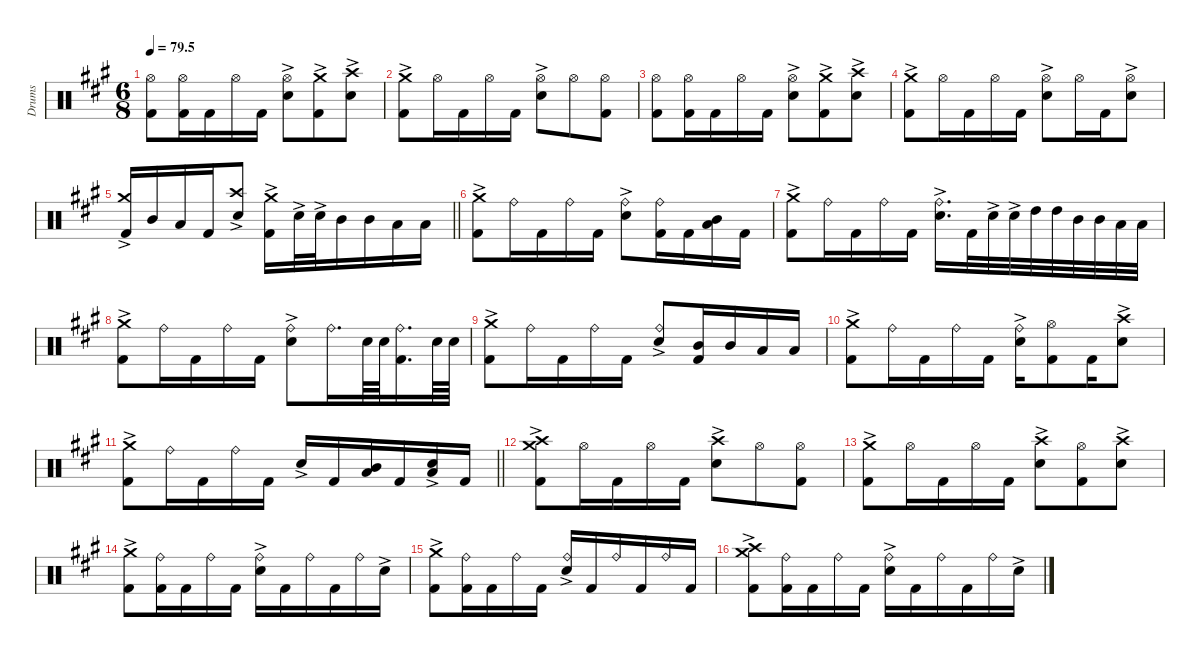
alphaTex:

\defaultSystemsLayout 4
\hideDynamics
\bracketExtendMode nobrackets
\otherSystemsTrackNameOrientation horizontal
\track ("Drumkit-show" "Drums") {mute instrument percussion}
\staff {score}
\articulation defaults
\ts (6 8)
\tempo
79.5
\accidentals auto
\clef neutral
\ottava regular
\simile none
\ks a
("Hi-Hat (open)"{acc forcenatural} "Kick (hit) 2"{acc forcenatural}).8{dy f beam Down} ("Hi-Hat (open)"{acc forcenatural} "Kick (hit) 2"{acc forcenatural}).16{beam Down} "Kick (hit) 2"{acc forcenatural}.16{beam Down} "Hi-Hat (open)"{acc forcenatural}.16{beam Down} "Kick (hit) 2"{acc forcenatural}.16{beam Down} ("Snare (hit) 2"{ac acc forcenatural} "Hi-Hat (open)"{acc forcenatural}).8{beam Down} ("Kick (hit) 2"{acc forcenatural} "Crash medium (hit)"{ac acc forcenatural}).8{beam Down} ("Snare (hit) 2"{ac acc forcenatural} "Crash high (hit)"{acc forcenatural}).8{beam Down} |
("Crash medium (hit)"{ac acc forcenatural} "Kick (hit) 2"{acc forcenatural}).8{beam Down} "Hi-Hat (open)"{acc forcenatural}.16{beam Down} "Kick (hit) 2"{acc forcenatural}.16{beam Down} "Hi-Hat (open)"{acc forcenatural}.16{beam Down} "Kick (hit) 2"{acc forcenatural}.16{beam Down} ("Hi-Hat (open)"{acc forcenatural} "Snare (hit) 2"{ac acc forcenatural}).8{beam Down} "Hi-Hat (open)"{acc forcenatural}.8{beam Down} ("Hi-Hat (open)"{acc forcenatural} "Kick (hit) 2"{acc forcenatural}).8{beam Down} |
("Hi-Hat (open)"{acc forcenatural} "Kick (hit) 2"{acc forcenatural}).8{beam Down} ("Hi-Hat (open)"{acc forcenatural} "Kick (hit) 2"{acc forcenatural}).16{beam Down} "Kick (hit) 2"{acc forcenatural}.16{beam Down} "Hi-Hat (open)"{acc forcenatural}.16{beam Down} "Kick (hit) 2"{acc forcenatural}.16{beam Down} ("Snare (hit) 2"{ac acc forcenatural} "Hi-Hat (open)"{acc forcenatural}).8{beam Down} ("Kick (hit) 2"{acc forcenatural} "Crash medium (hit)"{ac acc forcenatural}).8{beam Down} ("Snare (hit) 2"{ac acc forcenatural} "Crash high (hit)"{acc forcenatural}).8{beam Down} |
\scale
0.349521 ("Crash medium (hit)"{ac acc forcenatural} "Kick (hit) 2"{acc forcenatural}).8{beam Down} "Hi-Hat (open)"{acc forcenatural}.16{beam Down} "Kick (hit) 2"{acc forcenatural}.16{beam Down} "Hi-Hat (open)"{acc forcenatural}.16{beam Down} "Kick (hit) 2"{acc forcenatural}.16{beam Down} ("Hi-Hat (open)"{acc forcenatural} "Snare (hit) 2"{ac acc forcenatural}).8{beam Down} "Hi-Hat (open)"{acc forcenatural}.16{beam Down} "Kick (hit) 2"{acc forcenatural}.16{beam Down} ("Hi-Hat (open)"{acc forcenatural} "Snare (hit) 2"{ac acc forcenatural}).8{beam Down} |
\scale
0.330568
\barLineRight lightlight
("Crash medium (hit)"{ac acc forcenatural} "Kick (hit) 2"{acc forcenatural}).16{beam Up} "Mid Tom (hit)"{acc forcenatural}.16{beam Up} "Low Tom (hit)"{acc forcenatural}.16{beam Up} "Kick (hit) 2"{acc forcenatural}.16{beam Up} ("Crash high (hit)"{acc forcenatural} "Snare (hit) 2"{ac acc forcenatural}).8{beam Up} ("Crash medium (hit)"{ac acc forcenatural} "Kick (hit) 2"{acc forcenatural}).16{beam Down} "Snare (hit) 2"{ac acc forcenatural}.32{beam Down} "Snare (hit) 2"{ac acc forcenatural}.32{beam Down} "Mid Tom (hit)"{acc forcenatural}.16{beam Down} "Mid Tom (hit)"{acc forcenatural}.16{beam Down} "Low Tom (hit)"{acc forcenatural}.16{beam Down} "Low Tom (hit)"{acc forcenatural}.16{beam Down} |
\scale
0.31993 ("Crash medium (hit)"{ac acc forcenatural} "Kick (hit) 2"{acc forcenatural}).8{beam Down} "Ride (bell)"{acc forcenatural}.16{beam Down} "Kick (hit) 2"{acc forcenatural}.16{beam Down} "Ride (bell)"{acc forcenatural}.16{beam Down} "Kick (hit) 2"{acc forcenatural}.16{beam Down} ("Ride (bell)"{acc forcenatural} "Snare (hit) 2"{ac acc forcenatural}).8{beam Down} ("Ride (bell)"{acc forcenatural} "Kick (hit) 2"{acc forcenatural}).16{beam Down} "Kick (hit) 2"{acc forcenatural}.16{beam Down} ("Mid Tom (hit)"{acc forcenatural} "Low Tom (hit)"{acc forcenatural}).16{beam Down} "Kick (hit) 2"{acc forcenatural}.16{beam Down} |
("Crash medium (hit)"{ac acc forcenatural} "Kick (hit) 2"{acc forcenatural}).8{beam Down} "Ride (bell)"{acc forcenatural}.16{beam Down} "Kick (hit) 2"{acc forcenatural}.16{beam Down} "Ride (bell)"{acc forcenatural}.16{beam Down} "Kick (hit) 2"{acc forcenatural}.16{beam Down} ("Ride (bell)"{acc forcenatural} "Snare (hit) 2"{ac acc forcenatural}).16{d beam Down} "Kick (hit) 2"{acc forcenatural}.32{beam Down} "Snare (hit) 2"{ac acc forcenatural}.32{beam Down} "Snare (hit) 2"{ac acc forcenatural}.32{beam Down} "High Tom (hit)"{acc forcenatural}.32{beam Down} "High Tom (hit)"{acc forcenatural}.32{beam Down} "Mid Tom (hit)"{acc forcenatural}.32{beam Down} "Mid Tom (hit)"{acc forcenatural}.32{beam Down} "Low Tom (hit)"{acc forcenatural}.32{beam Down} "Low Tom (hit)"{acc forcenatural}.32{beam Down} |
("Crash medium (hit)"{ac acc forcenatural} "Kick (hit) 2"{acc forcenatural}).8{beam Down} "Ride (bell)"{acc forcenatural}.16{beam Down} "Kick (hit) 2"{acc forcenatural}.16{beam Down} "Ride (bell)"{acc forcenatural}.16{beam Down} "Kick (hit) 2"{acc forcenatural}.16{beam Down} ("Ride (bell)"{acc forcenatural} "Snare (hit) 2"{ac acc forcenatural}).8{beam Down} "Ride (bell)"{acc forcenatural}.16{d beam Down} "Snare (hit) 2"{acc forcenatural}.64{beam Down} "Snare (hit) 2"{acc forcenatural}.64{beam Down} ("Ride (bell)"{acc forcenatural} "Kick (hit) 2"{acc forcenatural}).16{d beam Down} "Snare (hit) 2"{acc forcenatural}.64{beam Down} "Snare (hit) 2"{acc forcenatural}.64{beam Down} |
("Crash medium (hit)"{ac acc forcenatural} "Kick (hit) 2"{acc forcenatural}).8{beam Down} "Ride (bell)"{acc forcenatural}.16{beam Down} "Kick (hit) 2"{acc forcenatural}.16{beam Down} "Ride (bell)"{acc forcenatural}.16{beam Down} "Kick (hit) 2"{acc forcenatural}.16{beam Down} ("Ride (bell)"{acc forcenatural} "Snare (hit) 2"{ac acc forcenatural}).8{beam Up} ("Mid Tom (hit)"{acc forcenatural} "Kick (hit) 2"{acc forcenatural}).16{beam Up} "Mid Tom (hit)"{acc forcenatural}.16{beam Up} "Low Tom (hit)"{acc forcenatural}.16{beam Up} "Low Tom (hit)"{acc forcenatural}.16{beam Up} |
("Crash medium (hit)"{ac acc forcenatural} "Kick (hit) 2"{acc forcenatural}).8{beam Down} "Ride (bell)"{acc forcenatural}.16{beam Down} "Kick (hit) 2"{acc forcenatural}.16{beam Down} "Ride (bell)"{acc forcenatural}.16{beam Down} "Kick (hit) 2"{acc forcenatural}.16{beam Down} ("Ride (bell)"{acc forcenatural} "Snare (hit) 2"{ac acc forcenatural}).16{beam Down} ("Hi-Hat (open)"{acc forcenatural} "Kick (hit) 2"{acc forcenatural}).8{beam Down} "Kick (hit) 2"{acc forcenatural}.16{beam Down} ("Crash high (hit)"{acc forcenatural} "Snare (hit) 2"{ac acc forcenatural}).8{beam Down} |
\barLineRight lightlight
("Crash medium (hit)"{ac acc forcenatural} "Kick (hit) 2"{acc forcenatural}).8{beam Down} "Ride (bell)"{acc forcenatural}.16{beam Down} "Kick (hit) 2"{acc forcenatural}.16{beam Down} "Ride (bell)"{acc forcenatural}.16{beam Down} "Kick (hit) 2"{acc forcenatural}.16{beam Down} "Snare (hit) 2"{ac acc forcenatural}.16{beam Up} "Kick (hit) 2"{acc forcenatural}.16{beam Up} ("Mid Tom (hit)"{acc forcenatural} "Low Tom (hit)"{acc forcenatural}).16{beam Up} "Kick (hit) 2"{acc forcenatural}.16{beam Up} ("Snare (hit) 2"{ac acc forcenatural} "Low Tom (hit)"{acc forcenatural}).16{beam Up} "Kick (hit) 2"{acc forcenatural}.16{beam Up} |
("Crash medium (hit)"{ac acc forcenatural} "Crash high (hit)"{acc forcenatural} "Kick (hit) 2"{acc forcenatural}).8{beam Down} "Hi-Hat (open)"{acc forcenatural}.16{beam Down} "Kick (hit) 2"{acc forcenatural}.16{beam Down} "Hi-Hat (open)"{acc forcenatural}.16{beam Down} "Kick (hit) 2"{acc forcenatural}.16{beam Down} ("Crash high (hit)"{acc forcenatural} "Snare (hit) 2"{ac acc forcenatural}).8{beam Down} "Hi-Hat (open)"{acc forcenatural}.8{beam Down} ("Hi-Hat (open)"{acc forcenatural} "Kick (hit) 2"{acc forcenatural}).8{beam Down} |
("Crash medium (hit)"{ac acc forcenatural} "Kick (hit) 2"{acc forcenatural}).8{beam Down} "Hi-Hat (open)"{acc forcenatural}.16{beam Down} "Kick (hit) 2"{acc forcenatural}.16{beam Down} "Hi-Hat (open)"{acc forcenatural}.16{beam Down} "Kick (hit) 2"{acc forcenatural}.16{beam Down} ("Crash high (hit)"{acc forcenatural} "Snare (hit) 2"{ac acc forcenatural}).8{beam Down} ("Hi-Hat (open)"{acc forcenatural} "Kick (hit) 2"{acc forcenatural}).8{beam Down} ("Snare (hit) 2"{ac acc forcenatural} "Crash high (hit)"{acc forcenatural}).8{beam Down} |
("Crash medium (hit)"{ac acc forcenatural} "Kick (hit) 2"{acc forcenatural}).8{beam Down} ("Ride (bell)"{acc forcenatural} "Kick (hit) 2"{acc forcenatural}).16{beam Down} "Kick (hit) 2"{acc forcenatural}.16{beam Down} "Ride (bell)"{acc forcenatural}.16{beam Down} "Kick (hit) 2"{acc forcenatural}.16{beam Down} ("Ride (bell)"{acc forcenatural} "Snare (hit) 2"{ac acc forcenatural}).16{beam Down} "Kick (hit) 2"{acc forcenatural}.16{beam Down} "Ride (bell)"{acc forcenatural}.16{beam Down} "Kick (hit) 2"{acc forcenatural}.16{beam Down} "Ride (bell)"{acc forcenatural}.16{beam Down} "Snare (hit) 2"{ac acc forcenatural}.16{beam Down} |
("Crash medium (hit)"{ac acc forcenatural} "Kick (hit) 2"{acc forcenatural}).8{beam Down} ("Ride (bell)"{acc forcenatural} "Kick (hit) 2"{acc forcenatural}).16{beam Down} "Kick (hit) 2"{acc forcenatural}.16{beam Down} "Ride (bell)"{acc forcenatural}.16{beam Down} "Kick (hit) 2"{acc forcenatural}.16{beam Down} ("Ride (bell)"{acc forcenatural} "Snare (hit) 2"{ac acc forcenatural}).16{beam Up} "Kick (hit) 2"{acc forcenatural}.16{beam Up} "Ride (bell)"{acc forcenatural}.16{beam Up} "Kick (hit) 2"{acc forcenatural}.16{beam Up} "Ride (bell)"{acc forcenatural}.16{beam Up} "Kick (hit) 2"{acc forcenatural}.16{beam Up} |
("Crash medium (hit)"{ac acc forcenatural} "Crash high (hit)"{acc forcenatural} "Kick (hit) 2"{acc forcenatural}).8{beam Down} ("Ride (bell)"{acc forcenatural} "Kick (hit) 2"{acc forcenatural}).16{beam Down} "Kick (hit) 2"{acc forcenatural}.16{beam Down} "Ride (bell)"{acc forcenatural}.16{beam Down} "Kick (hit) 2"{acc forcenatural}.16{beam Down} ("Ride (bell)"{acc forcenatural} "Snare (hit) 2"{ac acc forcenatural}).16{beam Down} "Kick (hit) 2"{acc forcenatural}.16{beam Down} "Ride (bell)"{acc forcenatural}.16{beam Down} "Kick (hit) 2"{acc forcenatural}.16{beam Down} "Ride (bell)"{acc forcenatural}.16{beam Down} "Snare (hit) 2"{ac acc forcenatural}.16{beam Down}
